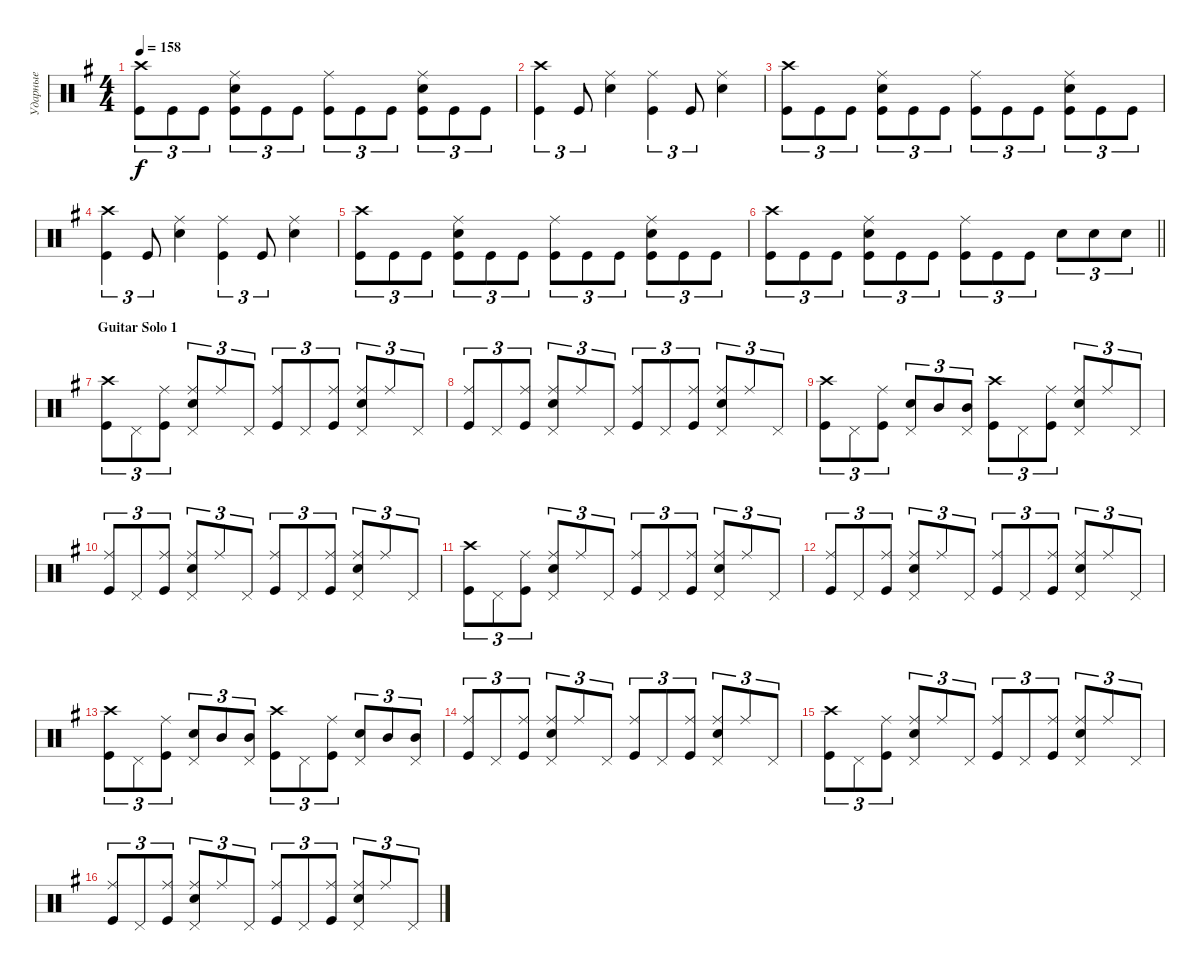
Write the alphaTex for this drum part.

\track ("Ударные" "Ударные") {instrument percussion}
\staff {score}
\articulation defaults
\ts (4 4)
\tempo 158
\clef neutral
\ks eminor
("Kick (hit)" "Crash high (hit)").8{tu (3 2) bd 120 dy f} "Kick (hit)".8{tu (3 2)} "Kick (hit)".8{tu (3 2)} ("Kick (hit)" "Snare (hit) 2" "Ride (middle)").8{tu (3 2) bd 120} "Kick (hit)".8{tu (3 2)} "Kick (hit)".8{tu (3 2)} ("Kick (hit)" "Ride (middle)").8{tu (3 2) bd 120} "Kick (hit)".8{tu (3 2)} "Kick (hit)".8{tu (3 2)} ("Kick (hit)" "Snare (hit) 2" "Ride (middle)").8{tu (3 2) bd 120} "Kick (hit)".8{tu (3 2)} "Kick (hit)".8{tu (3 2)} |
("Kick (hit)" "Crash high (hit)").4{tu (3 2) bd 120} "Kick (hit)".8{tu (3 2)} ("Snare (hit) 2" "Ride (middle)").4{bd 120} ("Kick (hit)" "Ride (middle)").4{tu (3 2) bd 120} "Kick (hit)".8{tu (3 2)} ("Snare (hit) 2" "Ride (middle)").4{bd 120} |
("Kick (hit)" "Crash high (hit)").8{tu (3 2) bd 120} "Kick (hit)".8{tu (3 2)} "Kick (hit)".8{tu (3 2)} ("Kick (hit)" "Snare (hit) 2" "Ride (middle)").8{tu (3 2) bd 120} "Kick (hit)".8{tu (3 2)} "Kick (hit)".8{tu (3 2)} ("Kick (hit)" "Ride (middle)").8{tu (3 2) bd 120} "Kick (hit)".8{tu (3 2)} "Kick (hit)".8{tu (3 2)} ("Kick (hit)" "Snare (hit) 2" "Ride (middle)").8{tu (3 2) bd 120} "Kick (hit)".8{tu (3 2)} "Kick (hit)".8{tu (3 2)} |
("Kick (hit)" "Crash high (hit)").4{tu (3 2) bd 120} "Kick (hit)".8{tu (3 2)} ("Snare (hit) 2" "Ride (middle)").4{bd 120} ("Kick (hit)" "Ride (middle)").4{tu (3 2) bd 120} "Kick (hit)".8{tu (3 2)} ("Snare (hit) 2" "Ride (middle)").4{bd 120} |
("Kick (hit)" "Crash high (hit)").8{tu (3 2) bd 120} "Kick (hit)".8{tu (3 2)} "Kick (hit)".8{tu (3 2)} ("Kick (hit)" "Snare (hit) 2" "Ride (middle)").8{tu (3 2) bd 120} "Kick (hit)".8{tu (3 2)} "Kick (hit)".8{tu (3 2)} ("Kick (hit)" "Ride (middle)").8{tu (3 2) bd 120} "Kick (hit)".8{tu (3 2)} "Kick (hit)".8{tu (3 2)} ("Kick (hit)" "Snare (hit) 2" "Ride (middle)").8{tu (3 2) bd 120} "Kick (hit)".8{tu (3 2)} "Kick (hit)".8{tu (3 2)} |
\barLineRight lightlight
("Kick (hit)" "Crash high (hit)").8{tu (3 2) bd 120} "Kick (hit)".8{tu (3 2)} "Kick (hit)".8{tu (3 2)} ("Kick (hit)" "Snare (hit) 2" "Ride (middle)").8{tu (3 2) bd 120} "Kick (hit)".8{tu (3 2)} "Kick (hit)".8{tu (3 2)} ("Kick (hit)" "Ride (middle)").8{tu (3 2) bd 120} "Kick (hit)".8{tu (3 2)} "Kick (hit)".8{tu (3 2)} "Snare (hit) 2".8{tu (3 2)} "Snare (hit) 2".8{tu (3 2)} "Snare (hit) 2".8{tu (3 2)} |
\section ("" "Guitar Solo 1")
("Kick (hit)" "Crash high (hit)").8{tu (3 2) bd 120} "Pedal Hi-Hat (hit)".8{tu (3 2)} ("Kick (hit)" "Ride (middle)").8{tu (3 2) bd 120} ("Snare (hit) 2" "Ride (middle)" "Pedal Hi-Hat (hit)").8{tu (3 2) bd 120} "Ride (middle)".8{tu (3 2)} "Pedal Hi-Hat (hit)".8{tu (3 2)} ("Kick (hit)" "Ride (middle)").8{tu (3 2) bd 120} "Pedal Hi-Hat (hit)".8{tu (3 2)} ("Kick (hit)" "Ride (middle)").8{tu (3 2) bd 120} ("Snare (hit) 2" "Ride (middle)" "Pedal Hi-Hat (hit)").8{tu (3 2) bd 120} "Ride (middle)".8{tu (3 2)} "Pedal Hi-Hat (hit)".8{tu (3 2)} |
("Kick (hit)" "Ride (middle)").8{tu (3 2) bd 120} "Pedal Hi-Hat (hit)".8{tu (3 2)} ("Kick (hit)" "Ride (middle)").8{tu (3 2) bd 120} ("Snare (hit) 2" "Ride (middle)" "Pedal Hi-Hat (hit)").8{tu (3 2) bd 120} "Ride (middle)".8{tu (3 2)} "Pedal Hi-Hat (hit)".8{tu (3 2)} ("Kick (hit)" "Ride (middle)").8{tu (3 2) bd 120} "Pedal Hi-Hat (hit)".8{tu (3 2)} ("Kick (hit)" "Ride (middle)").8{tu (3 2) bd 120} ("Snare (hit) 2" "Ride (middle)" "Pedal Hi-Hat (hit)").8{tu (3 2) bd 120} "Ride (middle)".8{tu (3 2)} "Pedal Hi-Hat (hit)".8{tu (3 2)} |
("Kick (hit)" "Crash high (hit)").8{tu (3 2)} "Pedal Hi-Hat (hit)".8{tu (3 2)} ("Kick (hit)" "Ride (middle)").8{tu (3 2)} ("Snare (hit) 2" "Pedal Hi-Hat (hit)").8{tu (3 2)} "Mid Tom (hit)".8{tu (3 2)} ("Pedal Hi-Hat (hit)" "Mid Tom (hit)").8{tu (3 2)} ("Kick (hit)" "Crash high (hit)").8{tu (3 2)} "Pedal Hi-Hat (hit)".8{tu (3 2)} ("Kick (hit)" "Ride (middle)").8{tu (3 2)} ("Snare (hit) 2" "Ride (middle)" "Pedal Hi-Hat (hit)").8{tu (3 2)} "Ride (middle)".8{tu (3 2)} "Pedal Hi-Hat (hit)".8{tu (3 2)} |
("Kick (hit)" "Ride (middle)").8{tu (3 2)} "Pedal Hi-Hat (hit)".8{tu (3 2)} ("Kick (hit)" "Ride (middle)").8{tu (3 2)} ("Snare (hit) 2" "Ride (middle)" "Pedal Hi-Hat (hit)").8{tu (3 2)} "Ride (middle)".8{tu (3 2)} "Pedal Hi-Hat (hit)".8{tu (3 2)} ("Kick (hit)" "Ride (middle)").8{tu (3 2)} "Pedal Hi-Hat (hit)".8{tu (3 2)} ("Kick (hit)" "Ride (middle)").8{tu (3 2)} ("Snare (hit) 2" "Ride (middle)" "Pedal Hi-Hat (hit)").8{tu (3 2)} "Ride (middle)".8{tu (3 2)} "Pedal Hi-Hat (hit)".8{tu (3 2)} |
("Kick (hit)" "Crash high (hit)").8{tu (3 2) bd 120} "Pedal Hi-Hat (hit)".8{tu (3 2)} ("Kick (hit)" "Ride (middle)").8{tu (3 2) bd 120} ("Snare (hit) 2" "Ride (middle)" "Pedal Hi-Hat (hit)").8{tu (3 2) bd 120} "Ride (middle)".8{tu (3 2)} "Pedal Hi-Hat (hit)".8{tu (3 2)} ("Kick (hit)" "Ride (middle)").8{tu (3 2) bd 120} "Pedal Hi-Hat (hit)".8{tu (3 2)} ("Kick (hit)" "Ride (middle)").8{tu (3 2) bd 120} ("Snare (hit) 2" "Ride (middle)" "Pedal Hi-Hat (hit)").8{tu (3 2) bd 120} "Ride (middle)".8{tu (3 2)} "Pedal Hi-Hat (hit)".8{tu (3 2)} |
("Kick (hit)" "Ride (middle)").8{tu (3 2) bd 120} "Pedal Hi-Hat (hit)".8{tu (3 2)} ("Kick (hit)" "Ride (middle)").8{tu (3 2) bd 120} ("Snare (hit) 2" "Ride (middle)" "Pedal Hi-Hat (hit)").8{tu (3 2) bd 120} "Ride (middle)".8{tu (3 2)} "Pedal Hi-Hat (hit)".8{tu (3 2)} ("Kick (hit)" "Ride (middle)").8{tu (3 2) bd 120} "Pedal Hi-Hat (hit)".8{tu (3 2)} ("Kick (hit)" "Ride (middle)").8{tu (3 2) bd 120} ("Snare (hit) 2" "Ride (middle)" "Pedal Hi-Hat (hit)").8{tu (3 2) bd 120} "Ride (middle)".8{tu (3 2)} "Pedal Hi-Hat (hit)".8{tu (3 2)} |
("Kick (hit)" "Crash high (hit)").8{tu (3 2)} "Pedal Hi-Hat (hit)".8{tu (3 2)} ("Kick (hit)" "Ride (middle)").8{tu (3 2)} ("Snare (hit) 2" "Pedal Hi-Hat (hit)").8{tu (3 2)} "Mid Tom (hit)".8{tu (3 2)} ("Pedal Hi-Hat (hit)" "Mid Tom (hit)").8{tu (3 2)} ("Kick (hit)" "Crash high (hit)").8{tu (3 2)} "Pedal Hi-Hat (hit)".8{tu (3 2)} ("Kick (hit)" "Ride (middle)").8{tu (3 2)} ("Snare (hit) 2" "Pedal Hi-Hat (hit)").8{tu (3 2)} "Mid Tom (hit)".8{tu (3 2)} ("Pedal Hi-Hat (hit)" "Mid Tom (hit)").8{tu (3 2)} |
("Kick (hit)" "Ride (middle)").8{tu (3 2)} "Pedal Hi-Hat (hit)".8{tu (3 2)} ("Kick (hit)" "Ride (middle)").8{tu (3 2)} ("Snare (hit) 2" "Ride (middle)" "Pedal Hi-Hat (hit)").8{tu (3 2)} "Ride (middle)".8{tu (3 2)} "Pedal Hi-Hat (hit)".8{tu (3 2)} ("Kick (hit)" "Ride (middle)").8{tu (3 2)} "Pedal Hi-Hat (hit)".8{tu (3 2)} ("Kick (hit)" "Ride (middle)").8{tu (3 2)} ("Snare (hit) 2" "Ride (middle)" "Pedal Hi-Hat (hit)").8{tu (3 2)} "Ride (middle)".8{tu (3 2)} "Pedal Hi-Hat (hit)".8{tu (3 2)} |
("Kick (hit)" "Crash high (hit)").8{tu (3 2) bd 120} "Pedal Hi-Hat (hit)".8{tu (3 2)} ("Kick (hit)" "Ride (middle)").8{tu (3 2) bd 120} ("Snare (hit) 2" "Ride (middle)" "Pedal Hi-Hat (hit)").8{tu (3 2) bd 120} "Ride (middle)".8{tu (3 2)} "Pedal Hi-Hat (hit)".8{tu (3 2)} ("Kick (hit)" "Ride (middle)").8{tu (3 2) bd 120} "Pedal Hi-Hat (hit)".8{tu (3 2)} ("Kick (hit)" "Ride (middle)").8{tu (3 2) bd 120} ("Snare (hit) 2" "Ride (middle)" "Pedal Hi-Hat (hit)").8{tu (3 2) bd 120} "Ride (middle)".8{tu (3 2)} "Pedal Hi-Hat (hit)".8{tu (3 2)} |
("Kick (hit)" "Ride (middle)").8{tu (3 2) bd 120} "Pedal Hi-Hat (hit)".8{tu (3 2)} ("Kick (hit)" "Ride (middle)").8{tu (3 2) bd 120} ("Snare (hit) 2" "Ride (middle)" "Pedal Hi-Hat (hit)").8{tu (3 2) bd 120} "Ride (middle)".8{tu (3 2)} "Pedal Hi-Hat (hit)".8{tu (3 2)} ("Kick (hit)" "Ride (middle)").8{tu (3 2) bd 120} "Pedal Hi-Hat (hit)".8{tu (3 2)} ("Kick (hit)" "Ride (middle)").8{tu (3 2) bd 120} ("Snare (hit) 2" "Ride (middle)" "Pedal Hi-Hat (hit)").8{tu (3 2) bd 120} "Ride (middle)".8{tu (3 2)} "Pedal Hi-Hat (hit)".8{tu (3 2)}
